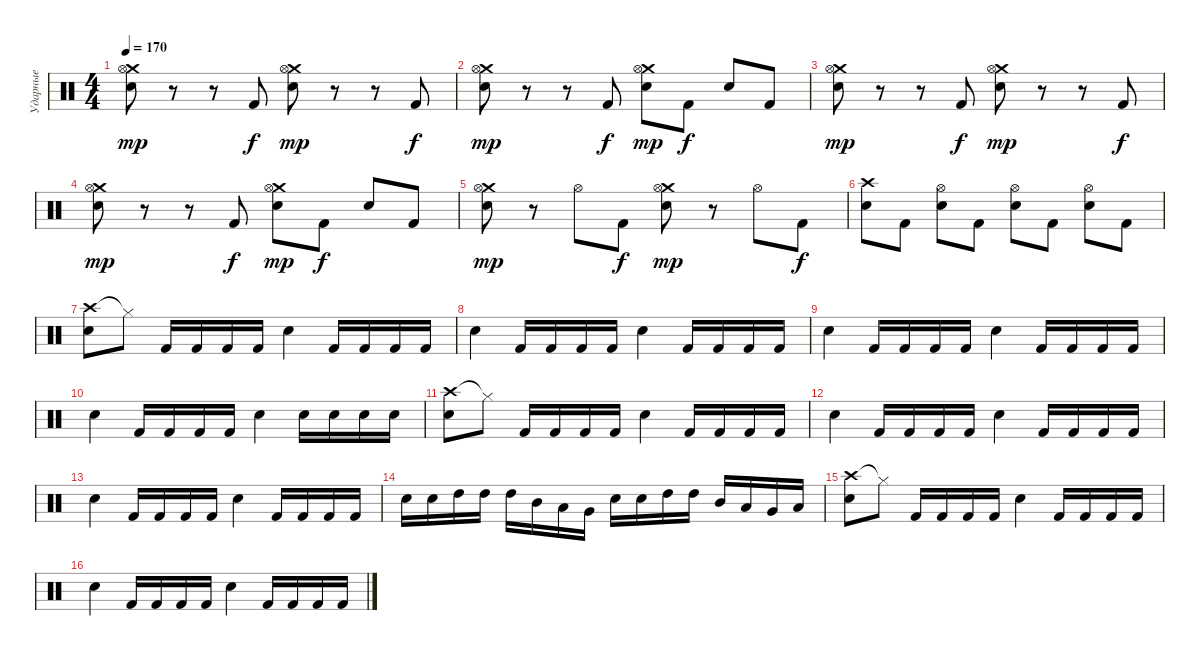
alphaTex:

\track ("Ударные" "Ударные") {instrument percussion}
\staff {score}
\articulation defaults
\ts (4 4)
\tempo 170
\clef neutral
\ks c
("Crash medium (hit)" "Hi-Hat (open)" "Snare (hit) 2").8{dy mp} r.8 r.8 "Kick (hit) 2".8{dy f} ("Crash medium (hit)" "Hi-Hat (open)" "Electric Snare (hit)").8{dy mp} r.8 r.8 "Kick (hit) 2".8{dy f} |
("Crash medium (hit)" "Hi-Hat (open)" "Snare (hit) 2").8{dy mp} r.8 r.8 "Kick (hit) 2".8{dy f} ("Crash medium (hit)" "Hi-Hat (open)" "Electric Snare (hit)").8{dy mp} "Kick (hit) 2".8{dy f} "Electric Snare (hit)".8 "Kick (hit) 2".8 |
("Crash medium (hit)" "Hi-Hat (open)" "Snare (hit) 2").8{dy mp} r.8 r.8 "Kick (hit) 2".8{dy f} ("Crash medium (hit)" "Hi-Hat (open)" "Electric Snare (hit)").8{dy mp} r.8 r.8 "Kick (hit) 2".8{dy f} |
("Crash medium (hit)" "Hi-Hat (open)" "Snare (hit) 2").8{dy mp} r.8 r.8 "Kick (hit) 2".8{dy f} ("Crash medium (hit)" "Hi-Hat (open)" "Electric Snare (hit)").8{dy mp} "Kick (hit) 2".8{dy f} "Electric Snare (hit)".8 "Kick (hit) 2".8 |
("Crash medium (hit)" "Hi-Hat (open)" "Snare (hit) 2").8{dy mp} r.8 "Hi-Hat (open)".8 "Kick (hit) 2".8{dy f} ("Crash medium (hit)" "Hi-Hat (open)" "Electric Snare (hit)").8{dy mp} r.8 "Hi-Hat (open)".8 "Kick (hit) 2".8{dy f} |
("Crash high (hit)" "Electric Snare (hit)").8 "Kick (hit) 2".8 ("Hi-Hat (open)" "Electric Snare (hit)").8 "Kick (hit) 2".8 ("Hi-Hat (open)" "Electric Snare (hit)").8 "Kick (hit) 2".8 ("Hi-Hat (open)" "Electric Snare (hit)").8 "Kick (hit) 2".8 |
("Crash high (hit)" "Snare (hit) 2").8{volume 13} "Hi-Hat (closed)"{t}.8 "Kick (hit) 2".16 "Kick (hit) 2".16 "Kick (hit) 2".16 "Kick (hit) 2".16 "Electric Snare (hit)".4 "Kick (hit) 2".16 "Kick (hit) 2".16 "Kick (hit) 2".16 "Kick (hit) 2".16 |
"Electric Snare (hit)".4 "Kick (hit) 2".16 "Kick (hit) 2".16 "Kick (hit) 2".16 "Kick (hit) 2".16 "Electric Snare (hit)".4 "Kick (hit) 2".16 "Kick (hit) 2".16 "Kick (hit) 2".16 "Kick (hit) 2".16 |
"Electric Snare (hit)".4 "Kick (hit) 2".16 "Kick (hit) 2".16 "Kick (hit) 2".16 "Kick (hit) 2".16 "Electric Snare (hit)".4 "Kick (hit) 2".16 "Kick (hit) 2".16 "Kick (hit) 2".16 "Kick (hit) 2".16 |
"Electric Snare (hit)".4 "Kick (hit) 2".16 "Kick (hit) 2".16 "Kick (hit) 2".16 "Kick (hit) 2".16 "Electric Snare (hit)".4 "Electric Snare (hit)".16 "Electric Snare (hit)".16 "Electric Snare (hit)".16 "Electric Snare (hit)".16 |
("Crash high (hit)" "Snare (hit) 2").8{volume 13} "Hi-Hat (closed)"{t}.8 "Kick (hit) 2".16 "Kick (hit) 2".16 "Kick (hit) 2".16 "Kick (hit) 2".16 "Electric Snare (hit)".4 "Kick (hit) 2".16 "Kick (hit) 2".16 "Kick (hit) 2".16 "Kick (hit) 2".16 |
"Electric Snare (hit)".4 "Kick (hit) 2".16 "Kick (hit) 2".16 "Kick (hit) 2".16 "Kick (hit) 2".16 "Electric Snare (hit)".4 "Kick (hit) 2".16 "Kick (hit) 2".16 "Kick (hit) 2".16 "Kick (hit) 2".16 |
"Electric Snare (hit)".4 "Kick (hit) 2".16 "Kick (hit) 2".16 "Kick (hit) 2".16 "Kick (hit) 2".16 "Electric Snare (hit)".4 "Kick (hit) 2".16 "Kick (hit) 2".16 "Kick (hit) 2".16 "Kick (hit) 2".16 |
"Electric Snare (hit)".16 "Electric Snare (hit)".16 "High Tom (hit)".16 "High Tom (hit)".16 "High Tom (hit)".16 "Mid Tom (hit)".16 "Low Tom (hit)".16 "Very Low Tom (hit)".16 "Electric Snare (hit)".16 "Electric Snare (hit)".16 "High Tom (hit)".16 "High Tom (hit)".16 "Mid Tom (hit)".16 "Low Tom (hit)".16 "Very Low Tom (hit)".16 "Low Floor Tom (hit)".16 |
("Crash high (hit)" "Snare (hit) 2").8{volume 13} "Hi-Hat (closed)"{t}.8 "Kick (hit) 2".16 "Kick (hit) 2".16 "Kick (hit) 2".16 "Kick (hit) 2".16 "Electric Snare (hit)".4 "Kick (hit) 2".16 "Kick (hit) 2".16 "Kick (hit) 2".16 "Kick (hit) 2".16 |
"Electric Snare (hit)".4 "Kick (hit) 2".16 "Kick (hit) 2".16 "Kick (hit) 2".16 "Kick (hit) 2".16 "Electric Snare (hit)".4 "Kick (hit) 2".16 "Kick (hit) 2".16 "Kick (hit) 2".16 "Kick (hit) 2".16
